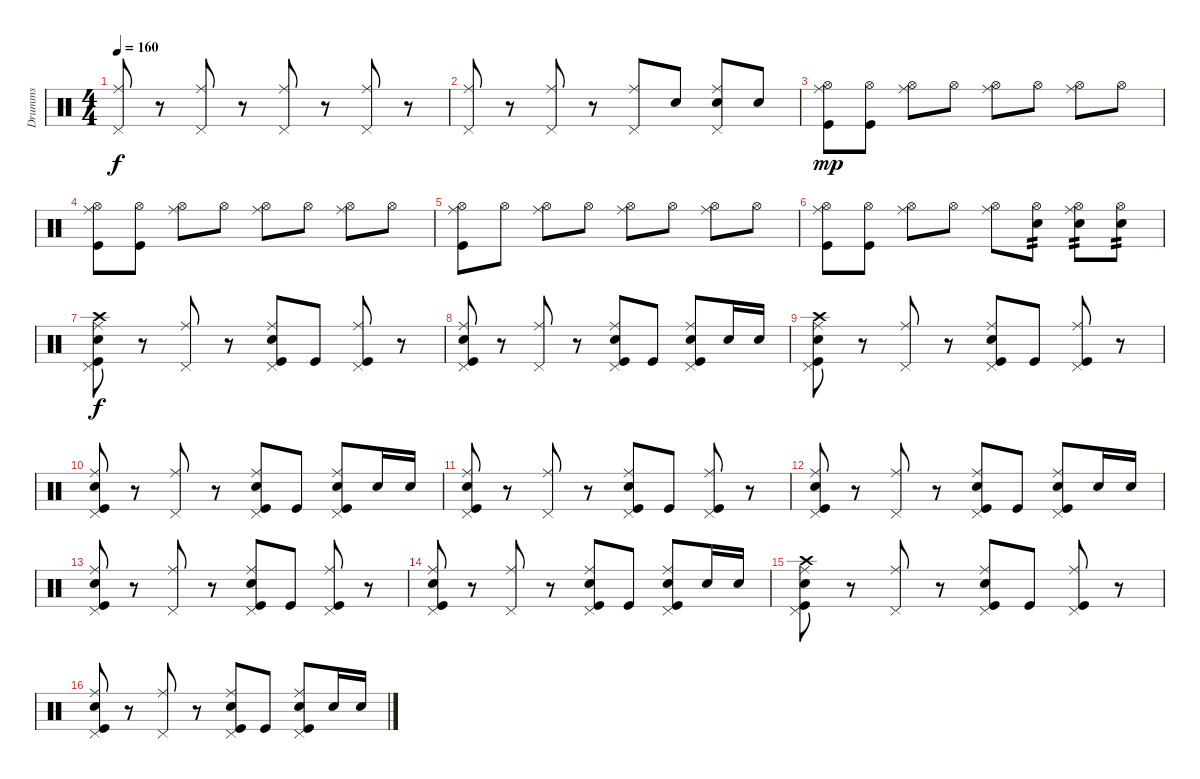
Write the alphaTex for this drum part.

\track ("Drumms" "Drumms") {instrument percussion}
\staff {score}
\articulation defaults
\ts (4 4)
\tempo 160
\clef neutral
\ks c
("Pedal Hi-Hat (hit)" "Ride (middle)").8{dy f} r.8 ("Pedal Hi-Hat (hit)" "Ride (middle)").8 r.8 ("Pedal Hi-Hat (hit)" "Ride (middle)").8 r.8 ("Pedal Hi-Hat (hit)" "Ride (middle)").8 r.8 |
("Pedal Hi-Hat (hit)" "Ride (middle)").8 r.8 ("Pedal Hi-Hat (hit)" "Ride (middle)").8 r.8 ("Pedal Hi-Hat (hit)" "Ride (middle)").8 "Snare (hit) 2".8 ("Pedal Hi-Hat (hit)" "Ride (middle)" "Snare (hit) 2").8 "Snare (hit) 2".8 |
("Hi-Hat (open)" "Ride (middle)" "Kick (hit)").8{dy mp} ("Hi-Hat (open)" "Kick (hit)").8 ("Hi-Hat (open)" "Ride (middle)").8 "Hi-Hat (open)".8 ("Hi-Hat (open)" "Ride (middle)").8 "Hi-Hat (open)".8 ("Hi-Hat (open)" "Ride (middle)").8 "Hi-Hat (open)".8 |
("Hi-Hat (open)" "Ride (middle)" "Kick (hit)").8 ("Hi-Hat (open)" "Kick (hit)").8 ("Hi-Hat (open)" "Ride (middle)").8 "Hi-Hat (open)".8 ("Hi-Hat (open)" "Ride (middle)").8 "Hi-Hat (open)".8 ("Hi-Hat (open)" "Ride (middle)").8 "Hi-Hat (open)".8 |
("Hi-Hat (open)" "Ride (middle)" "Kick (hit)").8 "Hi-Hat (open)".8 ("Hi-Hat (open)" "Ride (middle)").8 "Hi-Hat (open)".8 ("Hi-Hat (open)" "Ride (middle)").8 "Hi-Hat (open)".8 ("Hi-Hat (open)" "Ride (middle)").8 "Hi-Hat (open)".8 |
("Hi-Hat (open)" "Ride (middle)" "Kick (hit)").8 ("Hi-Hat (open)" "Kick (hit)").8 ("Hi-Hat (open)" "Ride (middle)").8 "Hi-Hat (open)".8 ("Hi-Hat (open)" "Ride (middle)").8 ("Hi-Hat (open)" "Snare (hit) 2").8{tp 2} ("Hi-Hat (open)" "Ride (middle)" "Snare (hit) 2").8{tp 2} ("Hi-Hat (open)" "Snare (hit) 2").8{tp 2} |
("Pedal Hi-Hat (hit)" "Ride (middle)" "Crash high (hit)" "Snare (hit) 2" "Kick (hit)").8{dy f} r.8 ("Pedal Hi-Hat (hit)" "Ride (middle)").8 r.8 ("Pedal Hi-Hat (hit)" "Ride (middle)" "Snare (hit) 2" "Kick (hit)").8 "Kick (hit)".8 ("Pedal Hi-Hat (hit)" "Ride (middle)" "Kick (hit)").8 r.8 |
("Pedal Hi-Hat (hit)" "Ride (middle)" "Snare (hit) 2" "Kick (hit)").8 r.8 ("Pedal Hi-Hat (hit)" "Ride (middle)").8 r.8 ("Pedal Hi-Hat (hit)" "Ride (middle)" "Snare (hit) 2" "Kick (hit)").8 "Kick (hit)".8 ("Pedal Hi-Hat (hit)" "Ride (middle)" "Snare (hit) 2" "Kick (hit)").8 "Snare (hit) 2".16 "Snare (hit) 2".16 |
("Pedal Hi-Hat (hit)" "Ride (middle)" "Crash high (hit)" "Snare (hit) 2" "Kick (hit)").8 r.8 ("Pedal Hi-Hat (hit)" "Ride (middle)").8 r.8 ("Pedal Hi-Hat (hit)" "Ride (middle)" "Snare (hit) 2" "Kick (hit)").8 "Kick (hit)".8 ("Pedal Hi-Hat (hit)" "Ride (middle)" "Kick (hit)").8 r.8 |
("Pedal Hi-Hat (hit)" "Ride (middle)" "Snare (hit) 2" "Kick (hit)").8 r.8 ("Pedal Hi-Hat (hit)" "Ride (middle)").8 r.8 ("Pedal Hi-Hat (hit)" "Ride (middle)" "Snare (hit) 2" "Kick (hit)").8 "Kick (hit)".8 ("Pedal Hi-Hat (hit)" "Ride (middle)" "Snare (hit) 2" "Kick (hit)").8 "Snare (hit) 2".16 "Snare (hit) 2".16 |
("Pedal Hi-Hat (hit)" "Ride (middle)" "Snare (hit) 2" "Kick (hit)").8 r.8 ("Pedal Hi-Hat (hit)" "Ride (middle)").8 r.8 ("Pedal Hi-Hat (hit)" "Ride (middle)" "Snare (hit) 2" "Kick (hit)").8 "Kick (hit)".8 ("Pedal Hi-Hat (hit)" "Ride (middle)" "Kick (hit)").8 r.8 |
("Pedal Hi-Hat (hit)" "Ride (middle)" "Snare (hit) 2" "Kick (hit)").8 r.8 ("Pedal Hi-Hat (hit)" "Ride (middle)").8 r.8 ("Pedal Hi-Hat (hit)" "Ride (middle)" "Snare (hit) 2" "Kick (hit)").8 "Kick (hit)".8 ("Pedal Hi-Hat (hit)" "Ride (middle)" "Snare (hit) 2" "Kick (hit)").8 "Snare (hit) 2".16 "Snare (hit) 2".16 |
("Pedal Hi-Hat (hit)" "Ride (middle)" "Snare (hit) 2" "Kick (hit)").8 r.8 ("Pedal Hi-Hat (hit)" "Ride (middle)").8 r.8 ("Pedal Hi-Hat (hit)" "Ride (middle)" "Snare (hit) 2" "Kick (hit)").8 "Kick (hit)".8 ("Pedal Hi-Hat (hit)" "Ride (middle)" "Kick (hit)").8 r.8 |
("Pedal Hi-Hat (hit)" "Ride (middle)" "Snare (hit) 2" "Kick (hit)").8 r.8 ("Pedal Hi-Hat (hit)" "Ride (middle)").8 r.8 ("Pedal Hi-Hat (hit)" "Ride (middle)" "Snare (hit) 2" "Kick (hit)").8 "Kick (hit)".8 ("Pedal Hi-Hat (hit)" "Ride (middle)" "Snare (hit) 2" "Kick (hit)").8 "Snare (hit) 2".16 "Snare (hit) 2".16 |
("Pedal Hi-Hat (hit)" "Ride (middle)" "Crash high (hit)" "Snare (hit) 2" "Kick (hit)").8 r.8 ("Pedal Hi-Hat (hit)" "Ride (middle)").8 r.8 ("Pedal Hi-Hat (hit)" "Ride (middle)" "Snare (hit) 2" "Kick (hit)").8 "Kick (hit)".8 ("Pedal Hi-Hat (hit)" "Ride (middle)" "Kick (hit)").8 r.8 |
("Pedal Hi-Hat (hit)" "Ride (middle)" "Snare (hit) 2" "Kick (hit)").8 r.8 ("Pedal Hi-Hat (hit)" "Ride (middle)").8 r.8 ("Pedal Hi-Hat (hit)" "Ride (middle)" "Snare (hit) 2" "Kick (hit)").8 "Kick (hit)".8 ("Pedal Hi-Hat (hit)" "Ride (middle)" "Snare (hit) 2" "Kick (hit)").8 "Snare (hit) 2".16 "Snare (hit) 2".16
